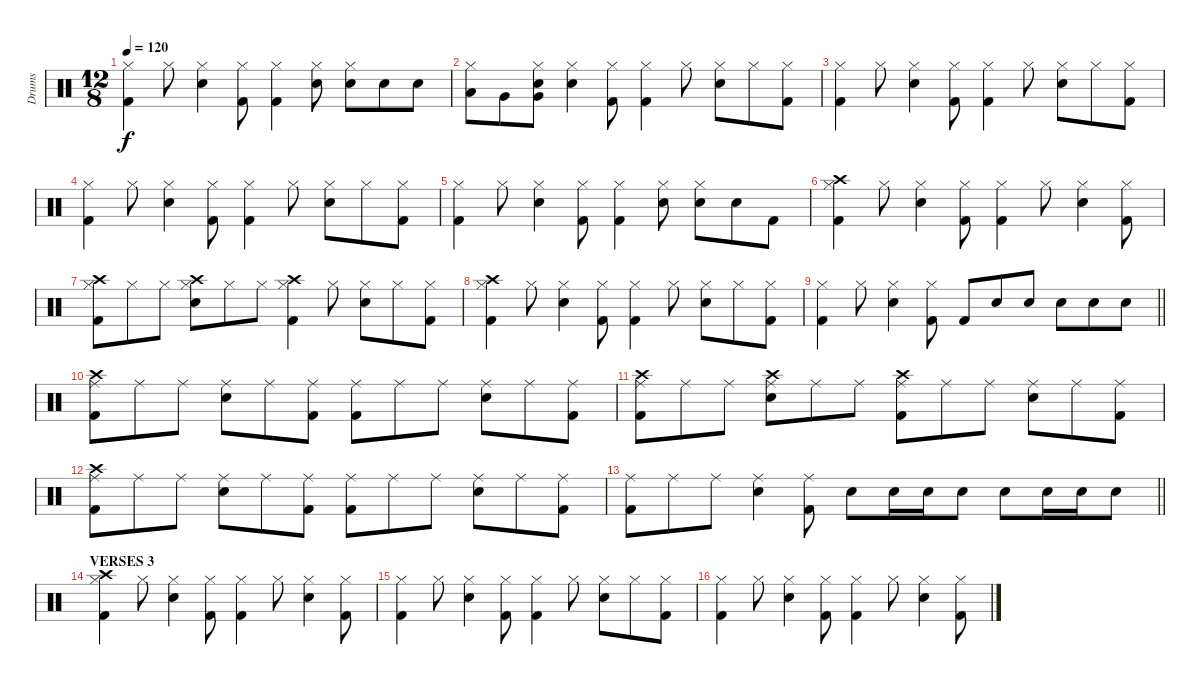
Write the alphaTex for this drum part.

\track ("Drums" "Drums") {instrument percussion}
\staff {score}
\articulation defaults
\ts (12 8)
\tempo 120
\clef neutral
\ks c
("Hi-Hat (closed)" "Kick (hit) 2").4{dy f} "Hi-Hat (closed)".8 ("Hi-Hat (closed)" "Electric Snare (hit)").4 ("Hi-Hat (closed)" "Kick (hit) 2").8 ("Hi-Hat (closed)" "Kick (hit) 2").4 ("Hi-Hat (closed)" "Electric Snare (hit)").8 ("Hi-Hat (closed)" "Electric Snare (hit)").8 "Electric Snare (hit)".8 "Electric Snare (hit)".8 |
("Hi-Hat (closed)" "Low Tom (hit)").8 "Very Low Tom (hit)".8 ("Hi-Hat (closed)" "Very Low Tom (hit)" "Electric Snare (hit)").8 ("Hi-Hat (closed)" "Electric Snare (hit)").4 ("Hi-Hat (closed)" "Kick (hit) 2").8 ("Hi-Hat (closed)" "Kick (hit) 2").4 "Hi-Hat (closed)".8 ("Hi-Hat (closed)" "Electric Snare (hit)").8 "Hi-Hat (closed)".8 ("Hi-Hat (closed)" "Kick (hit) 2").8 |
("Hi-Hat (closed)" "Kick (hit) 2").4 "Hi-Hat (closed)".8 ("Hi-Hat (closed)" "Electric Snare (hit)").4 ("Hi-Hat (closed)" "Kick (hit) 2").8 ("Hi-Hat (closed)" "Kick (hit) 2").4 "Hi-Hat (closed)".8 ("Hi-Hat (closed)" "Electric Snare (hit)").8 "Hi-Hat (closed)".8 ("Hi-Hat (closed)" "Kick (hit) 2").8 |
("Hi-Hat (closed)" "Kick (hit) 2").4 "Hi-Hat (closed)".8 ("Hi-Hat (closed)" "Electric Snare (hit)").4 ("Hi-Hat (closed)" "Kick (hit) 2").8 ("Hi-Hat (closed)" "Kick (hit) 2").4 "Hi-Hat (closed)".8 ("Hi-Hat (closed)" "Electric Snare (hit)").8 "Hi-Hat (closed)".8 ("Hi-Hat (closed)" "Kick (hit) 2").8 |
("Hi-Hat (closed)" "Kick (hit) 2").4 "Hi-Hat (closed)".8 ("Hi-Hat (closed)" "Electric Snare (hit)").4 ("Hi-Hat (closed)" "Kick (hit) 2").8 ("Hi-Hat (closed)" "Kick (hit) 2").4 ("Hi-Hat (closed)" "Electric Snare (hit)").8 ("Hi-Hat (closed)" "Electric Snare (hit)").8 "Electric Snare (hit)".8 "Kick (hit) 2".8 |
("Crash high (hit)" "Hi-Hat (closed)" "Kick (hit) 2").4 "Hi-Hat (closed)".8 ("Hi-Hat (closed)" "Electric Snare (hit)").4 ("Hi-Hat (closed)" "Kick (hit) 2").8 ("Hi-Hat (closed)" "Kick (hit) 2").4 "Hi-Hat (closed)".8 ("Hi-Hat (closed)" "Electric Snare (hit)").4 ("Hi-Hat (closed)" "Kick (hit) 2").8 |
("Crash high (hit)" "Hi-Hat (closed)" "Kick (hit) 2").8 "Hi-Hat (closed)".8 "Hi-Hat (closed)".8 ("Crash high (hit)" "Hi-Hat (closed)" "Electric Snare (hit)").8 "Hi-Hat (closed)".8 "Hi-Hat (closed)".8 ("Crash high (hit)" "Hi-Hat (closed)" "Kick (hit) 2").4 "Hi-Hat (closed)".8 ("Hi-Hat (closed)" "Electric Snare (hit)").8 "Hi-Hat (closed)".8 ("Hi-Hat (closed)" "Kick (hit) 2").8 |
("Crash high (hit)" "Hi-Hat (closed)" "Kick (hit) 2").4 "Hi-Hat (closed)".8 ("Hi-Hat (closed)" "Electric Snare (hit)").4 ("Hi-Hat (closed)" "Kick (hit) 2").8 ("Hi-Hat (closed)" "Kick (hit) 2").4 "Hi-Hat (closed)".8 ("Hi-Hat (closed)" "Electric Snare (hit)").8 "Hi-Hat (closed)".8 ("Hi-Hat (closed)" "Kick (hit) 2").8 |
\barLineRight lightlight
("Hi-Hat (closed)" "Kick (hit) 2").4 "Hi-Hat (closed)".8 ("Hi-Hat (closed)" "Electric Snare (hit)").4 ("Hi-Hat (closed)" "Kick (hit) 2").8 "Kick (hit) 2".8 "Electric Snare (hit)".8 "Electric Snare (hit)".8 "Electric Snare (hit)".8 "Electric Snare (hit)".8 "Electric Snare (hit)".8 |
("Crash high (hit)" "Ride (middle)" "Kick (hit) 2").8 "Ride (middle)".8 "Ride (middle)".8 ("Ride (middle)" "Electric Snare (hit)").8 "Ride (middle)".8 ("Ride (middle)" "Kick (hit) 2").8 ("Ride (middle)" "Kick (hit) 2").8 "Ride (middle)".8 "Ride (middle)".8 ("Ride (middle)" "Electric Snare (hit)").8 "Ride (middle)".8 ("Ride (middle)" "Kick (hit) 2").8 |
("Crash high (hit)" "Ride (middle)" "Kick (hit) 2").8 "Ride (middle)".8 "Ride (middle)".8 ("Crash high (hit)" "Ride (middle)" "Electric Snare (hit)").8 "Ride (middle)".8 "Ride (middle)".8 ("Crash high (hit)" "Ride (middle)" "Kick (hit) 2").8 "Ride (middle)".8 "Ride (middle)".8 ("Ride (middle)" "Electric Snare (hit)").8 "Ride (middle)".8 ("Ride (middle)" "Kick (hit) 2").8 |
("Crash high (hit)" "Ride (middle)" "Kick (hit) 2").8 "Ride (middle)".8 "Ride (middle)".8 ("Ride (middle)" "Electric Snare (hit)").8 "Ride (middle)".8 ("Ride (middle)" "Kick (hit) 2").8 ("Ride (middle)" "Kick (hit) 2").8 "Ride (middle)".8 "Ride (middle)".8 ("Ride (middle)" "Electric Snare (hit)").8 "Ride (middle)".8 ("Ride (middle)" "Kick (hit) 2").8 |
\barLineRight lightlight
("Ride (middle)" "Kick (hit) 2").8 "Ride (middle)".8 "Ride (middle)".8 ("Ride (middle)" "Electric Snare (hit)").4 ("Ride (middle)" "Kick (hit) 2").8 "Electric Snare (hit)".8 "Electric Snare (hit)".16 "Electric Snare (hit)".16 "Electric Snare (hit)".8 "Electric Snare (hit)".8 "Electric Snare (hit)".16 "Electric Snare (hit)".16 "Electric Snare (hit)".8 |
\section ("" "VERSES 3")
("Crash high (hit)" "Hi-Hat (closed)" "Kick (hit) 2").4 "Hi-Hat (closed)".8 ("Hi-Hat (closed)" "Electric Snare (hit)").4 ("Hi-Hat (closed)" "Kick (hit) 2").8 ("Hi-Hat (closed)" "Kick (hit) 2").4 "Hi-Hat (closed)".8 ("Hi-Hat (closed)" "Electric Snare (hit)").4 ("Hi-Hat (closed)" "Kick (hit) 2").8 |
("Hi-Hat (closed)" "Kick (hit) 2").4 "Hi-Hat (closed)".8 ("Hi-Hat (closed)" "Electric Snare (hit)").4 ("Hi-Hat (closed)" "Kick (hit) 2").8 ("Hi-Hat (closed)" "Kick (hit) 2").4 "Hi-Hat (closed)".8 ("Hi-Hat (closed)" "Electric Snare (hit)").8 "Hi-Hat (closed)".8 ("Hi-Hat (closed)" "Kick (hit) 2").8 |
("Hi-Hat (closed)" "Kick (hit) 2").4 "Hi-Hat (closed)".8 ("Hi-Hat (closed)" "Electric Snare (hit)").4 ("Hi-Hat (closed)" "Kick (hit) 2").8 ("Hi-Hat (closed)" "Kick (hit) 2").4 "Hi-Hat (closed)".8 ("Hi-Hat (closed)" "Electric Snare (hit)").4 ("Hi-Hat (closed)" "Kick (hit) 2").8
